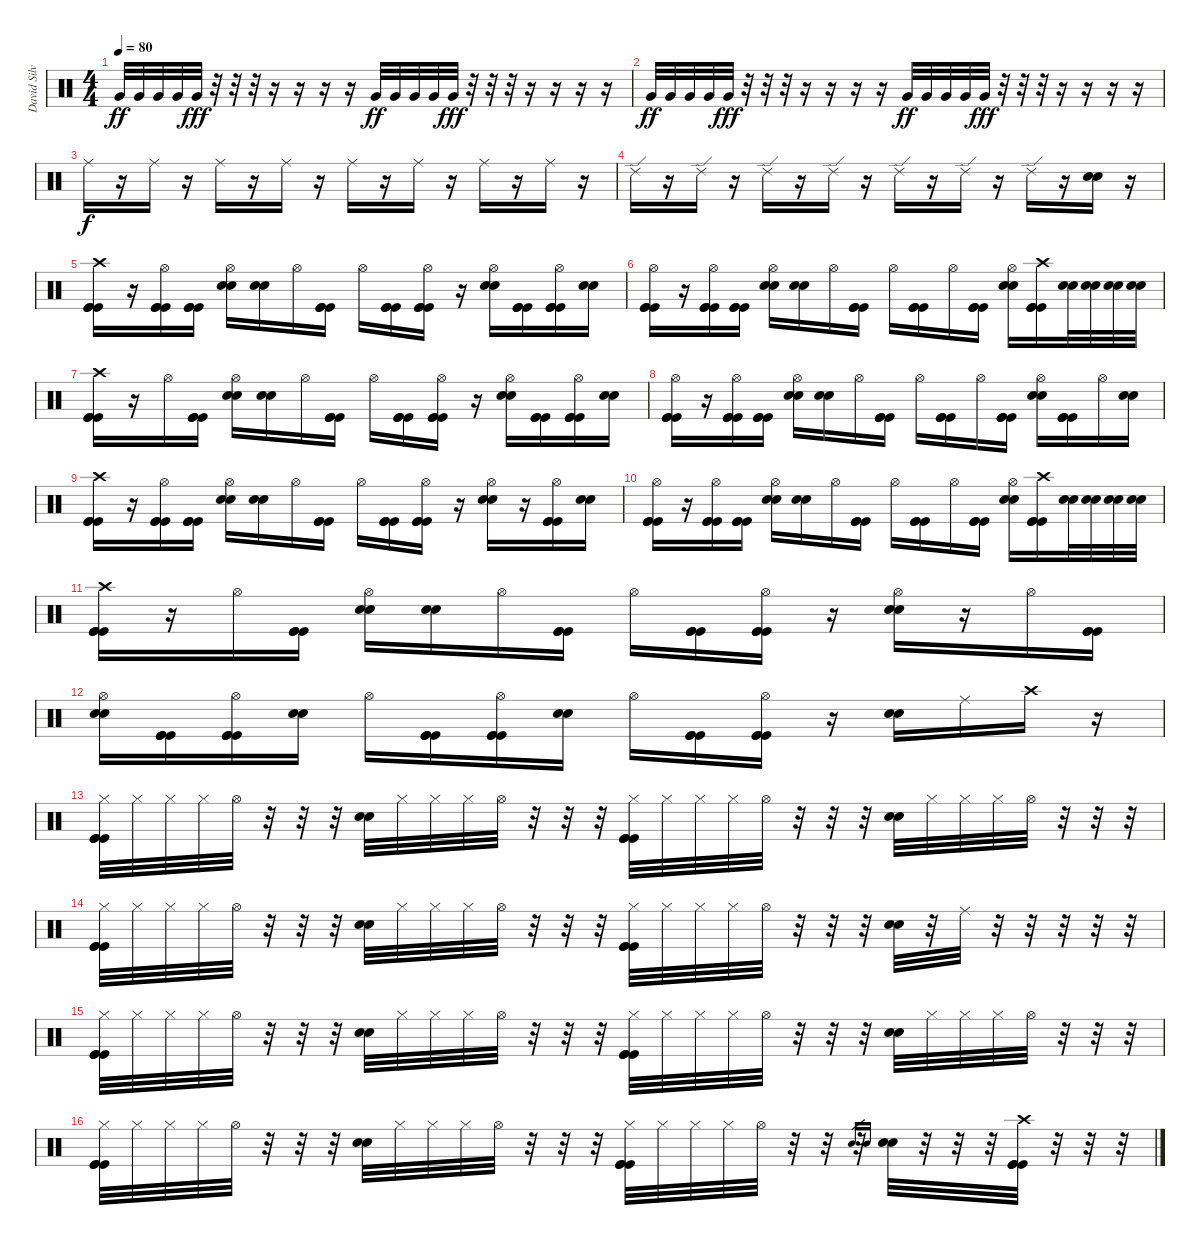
\track ("David Silveria (Drums)" "David Silv") {instrument percussion}
\staff {score}
\articulation defaults
\ts (4 4)
\tempo 80
\clef neutral
\ks c "Very Low Tom (hit)".32{dy ff} "Very Low Tom (hit)".32 "Very Low Tom (hit)".32 "Very Low Tom (hit)".32 "Very Low Tom (hit)".32{dy fff}
r.32 r.32 r.32 r.16 r.16 r.16 r.16 "Very Low Tom (hit)".32{dy ff} "Very Low Tom (hit)".32 "Very Low Tom (hit)".32 "Very Low Tom (hit)".32 "Very Low Tom (hit)".32{dy fff} r.32 r.32 r.32 r.16 r.16 r.16 r.16 |
"Very Low Tom (hit)".32{dy ff} "Very Low Tom (hit)".32 "Very Low Tom (hit)".32 "Very Low Tom (hit)".32 "Very Low Tom (hit)".32{dy fff} r.32 r.32 r.32 r.16 r.16 r.16 r.16 "Very Low Tom (hit)".32{dy ff} "Very Low Tom (hit)".32 "Very Low Tom (hit)".32 "Very Low Tom (hit)".32 "Very Low Tom (hit)".32{dy fff} r.32 r.32 r.32 r.16 r.16 r.16 r.16 |
"Ride (middle)".16{dy f} r.16 "Ride (middle)".16 r.16 "Ride (middle)".16 r.16 "Ride (middle)".16 r.16 "Ride (middle)".16 r.16 "Ride (middle)".16 r.16 "Ride (middle)".16 r.16 "Ride (middle)".16 r.16 |
"Ride (edge) 2".16 r.16 "Ride (edge) 2".16 r.16 "Ride (edge) 2".16 r.16 "Ride (edge) 2".16 r.16 "Ride (edge) 2".16 r.16 "Ride (edge) 2".16 r.16 "Ride (edge) 2".16 r.16 ("Snare (hit) 2" "Snare (hit) 2").16 r.16 |
("Crash high (hit)" "Kick (hit)" "Kick (hit)" "Kick (hit)").16 r.16 ("Hi-Hat (open)" "Kick (hit)" "Kick (hit)" "Kick (hit)").16 ("Kick (hit)" "Kick (hit)" "Kick (hit)").16 ("Hi-Hat (open)" "Snare (hit) 2" "Snare (hit) 2").16 ("Snare (hit) 2" "Snare (hit) 2").16 "Hi-Hat (open)".16 ("Kick (hit)" "Kick (hit)" "Kick (hit)").16 "Hi-Hat (open)".16 ("Kick (hit)" "Kick (hit)" "Kick (hit)").16 ("Hi-Hat (open)" "Kick (hit)" "Kick (hit)" "Kick (hit)").16 r.16 ("Hi-Hat (open)" "Snare (hit) 2" "Snare (hit) 2").16 ("Kick (hit)" "Kick (hit)" "Kick (hit)").16 ("Hi-Hat (open)" "Kick (hit)" "Kick (hit)" "Kick (hit)").16 ("Snare (hit) 2" "Snare (hit) 2").16 |
("Hi-Hat (open)" "Kick (hit)" "Kick (hit)" "Kick (hit)").16 r.16 ("Hi-Hat (open)" "Kick (hit)" "Kick (hit)" "Kick (hit)").16 ("Kick (hit)" "Kick (hit)" "Kick (hit)").16 ("Hi-Hat (open)" "Snare (hit) 2" "Snare (hit) 2").16 ("Snare (hit) 2" "Snare (hit) 2").16 "Hi-Hat (open)".16 ("Kick (hit)" "Kick (hit)" "Kick (hit)").16 "Hi-Hat (open)".16 ("Kick (hit)" "Kick (hit)" "Kick (hit)").16 "Hi-Hat (open)".16 ("Kick (hit)" "Kick (hit)" "Kick (hit)").16 ("Hi-Hat (open)" "Snare (hit) 2" "Snare (hit) 2").16 ("Crash high (hit)" "Kick (hit)" "Kick (hit)" "Kick (hit)").16 ("Snare (hit) 2" "Snare (hit) 2").32 ("Snare (hit) 2" "Snare (hit) 2").32 ("Snare (hit) 2" "Snare (hit) 2").32 ("Snare (hit) 2" "Snare (hit) 2").32 |
("Crash high (hit)" "Kick (hit)" "Kick (hit)" "Kick (hit)").16 r.16 "Hi-Hat (open)".16 ("Kick (hit)" "Kick (hit)" "Kick (hit)").16 ("Hi-Hat (open)" "Snare (hit) 2" "Snare (hit) 2").16 ("Snare (hit) 2" "Snare (hit) 2").16 "Hi-Hat (open)".16 ("Kick (hit)" "Kick (hit)" "Kick (hit)").16 "Hi-Hat (open)".16 ("Kick (hit)" "Kick (hit)" "Kick (hit)").16 ("Hi-Hat (open)" "Kick (hit)" "Kick (hit)" "Kick (hit)").16 r.16 ("Hi-Hat (open)" "Snare (hit) 2" "Snare (hit) 2").16 ("Kick (hit)" "Kick (hit)" "Kick (hit)").16 ("Hi-Hat (open)" "Kick (hit)" "Kick (hit)" "Kick (hit)").16 ("Snare (hit) 2" "Snare (hit) 2").16 |
("Hi-Hat (open)" "Kick (hit)" "Kick (hit)" "Kick (hit)").16 r.16 ("Hi-Hat (open)" "Kick (hit)" "Kick (hit)" "Kick (hit)").16 ("Kick (hit)" "Kick (hit)" "Kick (hit)").16 ("Hi-Hat (open)" "Snare (hit) 2" "Snare (hit) 2").16 ("Snare (hit) 2" "Snare (hit) 2").16 "Hi-Hat (open)".16 ("Kick (hit)" "Kick (hit)" "Kick (hit)").16 "Hi-Hat (open)".16 ("Kick (hit)" "Kick (hit)" "Kick (hit)").16 "Hi-Hat (open)".16 ("Kick (hit)" "Kick (hit)" "Kick (hit)").16 ("Hi-Hat (open)" "Snare (hit) 2" "Snare (hit) 2").16 ("Kick (hit)" "Kick (hit)" "Kick (hit)").16 "Hi-Hat (open)".16 ("Snare (hit) 2" "Snare (hit) 2").16 |
("Crash high (hit)" "Kick (hit)" "Kick (hit)" "Kick (hit)").16 r.16 ("Hi-Hat (open)" "Kick (hit)" "Kick (hit)" "Kick (hit)").16 ("Kick (hit)" "Kick (hit)" "Kick (hit)").16 ("Hi-Hat (open)" "Snare (hit) 2" "Snare (hit) 2").16 ("Snare (hit) 2" "Snare (hit) 2").16 "Hi-Hat (open)".16 ("Kick (hit)" "Kick (hit)" "Kick (hit)").16 "Hi-Hat (open)".16 ("Kick (hit)" "Kick (hit)" "Kick (hit)").16 ("Hi-Hat (open)" "Kick (hit)" "Kick (hit)" "Kick (hit)").16 r.16 ("Hi-Hat (open)" "Snare (hit) 2" "Snare (hit) 2").16 r.16 ("Hi-Hat (open)" "Kick (hit)" "Kick (hit)" "Kick (hit)").16 ("Snare (hit) 2" "Snare (hit) 2").16 |
("Hi-Hat (open)" "Kick (hit)" "Kick (hit)" "Kick (hit)").16 r.16 ("Hi-Hat (open)" "Kick (hit)" "Kick (hit)" "Kick (hit)").16 ("Kick (hit)" "Kick (hit)" "Kick (hit)").16 ("Hi-Hat (open)" "Snare (hit) 2" "Snare (hit) 2").16 ("Snare (hit) 2" "Snare (hit) 2").16 "Hi-Hat (open)".16 ("Kick (hit)" "Kick (hit)" "Kick (hit)").16 "Hi-Hat (open)".16 ("Kick (hit)" "Kick (hit)" "Kick (hit)").16 "Hi-Hat (open)".16 ("Kick (hit)" "Kick (hit)" "Kick (hit)").16 ("Hi-Hat (open)" "Snare (hit) 2" "Snare (hit) 2").16 ("Crash high (hit)" "Kick (hit)" "Kick (hit)" "Kick (hit)").16 ("Snare (hit) 2" "Snare (hit) 2").32 ("Snare (hit) 2" "Snare (hit) 2").32 ("Snare (hit) 2" "Snare (hit) 2").32 ("Snare (hit) 2" "Snare (hit) 2").32 |
("Crash high (hit)" "Kick (hit)" "Kick (hit)" "Kick (hit)").16 r.16 "Hi-Hat (open)".16 ("Kick (hit)" "Kick (hit)" "Kick (hit)").16 ("Hi-Hat (open)" "Snare (hit) 2" "Snare (hit) 2").16 ("Snare (hit) 2" "Snare (hit) 2").16 "Hi-Hat (open)".16 ("Kick (hit)" "Kick (hit)" "Kick (hit)").16 "Hi-Hat (open)".16 ("Kick (hit)" "Kick (hit)" "Kick (hit)").16 ("Hi-Hat (open)" "Kick (hit)" "Kick (hit)" "Kick (hit)").16 r.16 ("Hi-Hat (open)" "Snare (hit) 2" "Snare (hit) 2").16 r.16 "Hi-Hat (open)".16 ("Kick (hit)" "Kick (hit)" "Kick (hit)").16 |
("Hi-Hat (open)" "Snare (hit) 2" "Snare (hit) 2").16 ("Kick (hit)" "Kick (hit)" "Kick (hit)").16 ("Hi-Hat (open)" "Kick (hit)" "Kick (hit)" "Kick (hit)").16 ("Snare (hit) 2" "Snare (hit) 2").16 "Hi-Hat (open)".16 ("Kick (hit)" "Kick (hit)" "Kick (hit)").16 ("Hi-Hat (open)" "Kick (hit)" "Kick (hit)" "Kick (hit)").16 ("Snare (hit) 2" "Snare (hit) 2").16 "Hi-Hat (open)".16 ("Kick (hit)" "Kick (hit)" "Kick (hit)").16 ("Hi-Hat (open)" "Kick (hit)" "Kick (hit)" "Kick (hit)").16 r.16 ("Snare (hit) 2" "Snare (hit) 2").16 "Ride (middle)".16 "Crash high (hit)".16 r.16 |
("Hi-Hat (closed)" "Kick (hit)" "Kick (hit)" "Kick (hit)").32 "Hi-Hat (closed)".32 "Hi-Hat (closed)".32 "Hi-Hat (closed)".32 "Hi-Hat (open)".32 r.32 r.32 r.32 ("Snare (hit) 2" "Snare (hit) 2").32 "Hi-Hat (closed)".32 "Hi-Hat (closed)".32 "Hi-Hat (closed)".32 "Hi-Hat (open)".32 r.32 r.32 r.32 ("Hi-Hat (closed)" "Kick (hit)" "Kick (hit)" "Kick (hit)").32 "Hi-Hat (closed)".32 "Hi-Hat (closed)".32 "Hi-Hat (closed)".32 "Hi-Hat (open)".32 r.32 r.32 r.32 ("Snare (hit) 2" "Snare (hit) 2").32 "Hi-Hat (closed)".32 "Hi-Hat (closed)".32 "Hi-Hat (closed)".32 "Hi-Hat (open)".32 r.32 r.32 r.32 |
("Hi-Hat (closed)" "Kick (hit)" "Kick (hit)" "Kick (hit)").32 "Hi-Hat (closed)".32 "Hi-Hat (closed)".32 "Hi-Hat (closed)".32 "Hi-Hat (open)".32 r.32 r.32 r.32 ("Snare (hit) 2" "Snare (hit) 2").32 "Hi-Hat (closed)".32 "Hi-Hat (closed)".32 "Hi-Hat (closed)".32 "Hi-Hat (open)".32 r.32 r.32 r.32 ("Hi-Hat (closed)" "Kick (hit)" "Kick (hit)" "Kick (hit)").32 "Hi-Hat (closed)".32 "Hi-Hat (closed)".32 "Hi-Hat (closed)".32 "Hi-Hat (open)".32 r.32 r.32 r.32 ("Snare (hit) 2" "Snare (hit) 2").32 r.32 "Ride (middle)".32 r.32 r.32 r.32 r.32 r.32 |
("Hi-Hat (closed)" "Kick (hit)" "Kick (hit)" "Kick (hit)").32 "Hi-Hat (closed)".32 "Hi-Hat (closed)".32 "Hi-Hat (closed)".32 "Hi-Hat (open)".32 r.32 r.32 r.32 ("Snare (hit) 2" "Snare (hit) 2").32 "Hi-Hat (closed)".32 "Hi-Hat (closed)".32 "Hi-Hat (closed)".32 "Hi-Hat (open)".32 r.32 r.32 r.32 ("Hi-Hat (closed)" "Kick (hit)" "Kick (hit)" "Kick (hit)").32 "Hi-Hat (closed)".32 "Hi-Hat (closed)".32 "Hi-Hat (closed)".32 "Hi-Hat (open)".32 r.32 r.32 r.32 ("Snare (hit) 2" "Snare (hit) 2").32 "Hi-Hat (closed)".32 "Hi-Hat (closed)".32 "Hi-Hat (closed)".32 "Hi-Hat (open)".32 r.32 r.32 r.32 |
("Hi-Hat (closed)" "Kick (hit)" "Kick (hit)" "Kick (hit)").32 "Hi-Hat (closed)".32 "Hi-Hat (closed)".32 "Hi-Hat (closed)".32 "Hi-Hat (open)".32 r.32 r.32 r.32 ("Snare (hit) 2" "Snare (hit) 2").32 "Hi-Hat (closed)".32 "Hi-Hat (closed)".32 "Hi-Hat (closed)".32 "Hi-Hat (open)".32 r.32 r.32 r.32 ("Hi-Hat (closed)" "Kick (hit)" "Kick (hit)" "Kick (hit)").32 "Hi-Hat (closed)".32 "Hi-Hat (closed)".32 "Hi-Hat (closed)".32 "Hi-Hat (open)".32 r.32 r.32 r.32 "Snare (hit) 2".16{gr} "Snare (hit) 2".16{gr} ("Snare (hit) 2" "Snare (hit) 2").32 r.32 r.32 r.32 ("Crash high (hit)" "Kick (hit)" "Kick (hit)" "Kick (hit)").32 r.32 r.32 r.32
